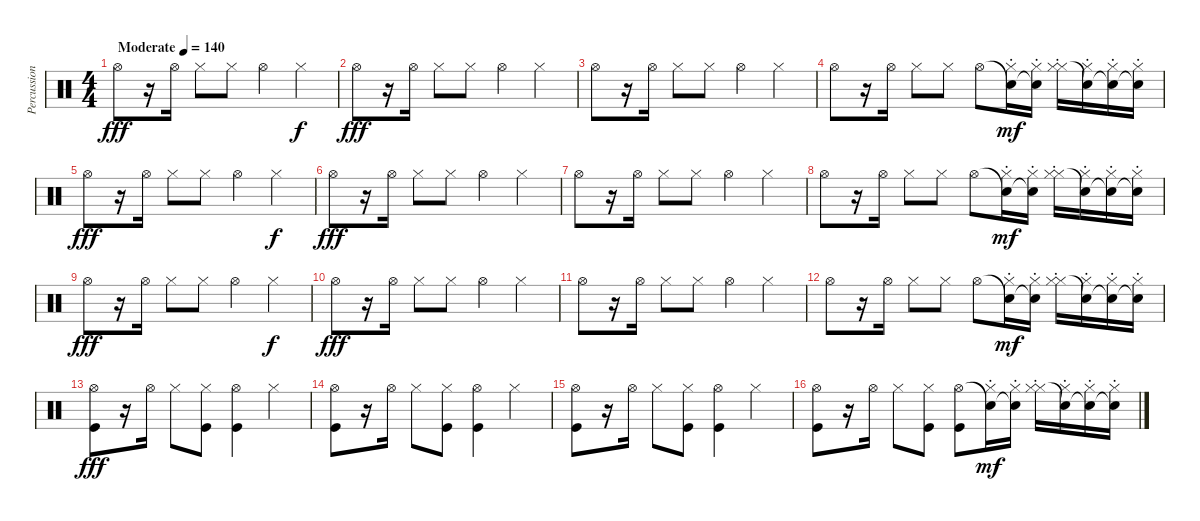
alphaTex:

\track ("Percussion" "Percussion") {instrument percussion}
\staff {score}
\articulation defaults
\ts (4 4)
\tempo (140 "Moderate")
\clef neutral
\ks c "Hi-Hat (open)".8{dy fff}
r.16 "Hi-Hat (open)".16 "Hi-Hat (closed)".8 "Hi-Hat (closed)".8 "Hi-Hat (open)".4 "Hi-Hat (closed)".4{dy f} |
"Hi-Hat (open)".8{dy fff} r.16 "Hi-Hat (open)".16 "Hi-Hat (closed)".8 "Hi-Hat (closed)".8 "Hi-Hat (open)".4 "Hi-Hat (closed)".4 |
"Hi-Hat (open)".8 r.16 "Hi-Hat (open)".16 "Hi-Hat (closed)".8 "Hi-Hat (closed)".8 "Hi-Hat (open)".4 "Hi-Hat (closed)".4 |
"Hi-Hat (open)".8 r.16 "Hi-Hat (open)".16 "Hi-Hat (closed)".8 "Hi-Hat (closed)".8 "Hi-Hat (open)".8 ("Snare (hit)"{t} "Hi-Hat (closed)"{st}).16{dy mf} ("Snare (hit)"{t} "Hi-Hat (closed)"{st}).16 ("Hi-Hat (closed)" "Hi-Hat (closed)"{st}).16 ("Snare (hit)"{t} "Hi-Hat (closed)"{st}).16 ("Snare (hit)"{t} "Hi-Hat (closed)"{st}).16 ("Snare (hit)"{t} "Hi-Hat (closed)"{st}).16 |
"Hi-Hat (open)".8{dy fff} r.16 "Hi-Hat (open)".16 "Hi-Hat (closed)".8 "Hi-Hat (closed)".8 "Hi-Hat (open)".4 "Hi-Hat (closed)".4{dy f} |
"Hi-Hat (open)".8{dy fff} r.16 "Hi-Hat (open)".16 "Hi-Hat (closed)".8 "Hi-Hat (closed)".8 "Hi-Hat (open)".4 "Hi-Hat (closed)".4 |
"Hi-Hat (open)".8 r.16 "Hi-Hat (open)".16 "Hi-Hat (closed)".8 "Hi-Hat (closed)".8 "Hi-Hat (open)".4 "Hi-Hat (closed)".4 |
"Hi-Hat (open)".8 r.16 "Hi-Hat (open)".16 "Hi-Hat (closed)".8 "Hi-Hat (closed)".8 "Hi-Hat (open)".8 ("Snare (hit)"{t} "Hi-Hat (closed)"{st}).16{dy mf} ("Snare (hit)"{t} "Hi-Hat (closed)"{st}).16 ("Hi-Hat (closed)" "Hi-Hat (closed)"{st}).16 ("Snare (hit)"{t} "Hi-Hat (closed)"{st}).16 ("Snare (hit)"{t} "Hi-Hat (closed)"{st}).16 ("Snare (hit)"{t} "Hi-Hat (closed)"{st}).16 |
"Hi-Hat (open)".8{dy fff} r.16 "Hi-Hat (open)".16 "Hi-Hat (closed)".8 "Hi-Hat (closed)".8 "Hi-Hat (open)".4 "Hi-Hat (closed)".4{dy f} |
"Hi-Hat (open)".8{dy fff} r.16 "Hi-Hat (open)".16 "Hi-Hat (closed)".8 "Hi-Hat (closed)".8 "Hi-Hat (open)".4 "Hi-Hat (closed)".4 |
"Hi-Hat (open)".8 r.16 "Hi-Hat (open)".16 "Hi-Hat (closed)".8 "Hi-Hat (closed)".8 "Hi-Hat (open)".4 "Hi-Hat (closed)".4 |
"Hi-Hat (open)".8 r.16 "Hi-Hat (open)".16 "Hi-Hat (closed)".8 "Hi-Hat (closed)".8 "Hi-Hat (open)".8 ("Snare (hit)"{t} "Hi-Hat (closed)"{st}).16{dy mf} ("Snare (hit)"{t} "Hi-Hat (closed)"{st}).16 ("Hi-Hat (closed)" "Hi-Hat (closed)"{st}).16 ("Snare (hit)"{t} "Hi-Hat (closed)"{st}).16 ("Snare (hit)"{t} "Hi-Hat (closed)"{st}).16 ("Snare (hit)"{t} "Hi-Hat (closed)"{st}).16 |
("Hi-Hat (open)" "Kick (hit)").8{dy fff} r.16 "Hi-Hat (open)".16 "Hi-Hat (closed)".8 ("Hi-Hat (closed)" "Kick (hit)").8 ("Hi-Hat (open)" "Kick (hit)").4 "Hi-Hat (closed)".4 |
("Hi-Hat (open)" "Kick (hit)").8 r.16 "Hi-Hat (open)".16 "Hi-Hat (closed)".8 ("Hi-Hat (closed)" "Kick (hit)").8 ("Hi-Hat (open)" "Kick (hit)").4 "Hi-Hat (closed)".4 |
("Hi-Hat (open)" "Kick (hit)").8 r.16 "Hi-Hat (open)".16 "Hi-Hat (closed)".8 ("Hi-Hat (closed)" "Kick (hit)").8 ("Hi-Hat (open)" "Kick (hit)").4 "Hi-Hat (closed)".4 |
("Hi-Hat (open)" "Kick (hit)").8 r.16 "Hi-Hat (open)".16 "Hi-Hat (closed)".8 ("Hi-Hat (closed)" "Kick (hit)").8 ("Hi-Hat (open)" "Kick (hit)").8 ("Snare (hit)"{t} "Hi-Hat (closed)"{st}).16{dy mf} ("Snare (hit)"{t} "Hi-Hat (closed)"{st}).16 ("Hi-Hat (closed)" "Hi-Hat (closed)"{st}).16 ("Snare (hit)"{t} "Hi-Hat (closed)"{st}).16 ("Snare (hit)"{t} "Hi-Hat (closed)"{st}).16 ("Snare (hit)"{t} "Hi-Hat (closed)"{st}).16
